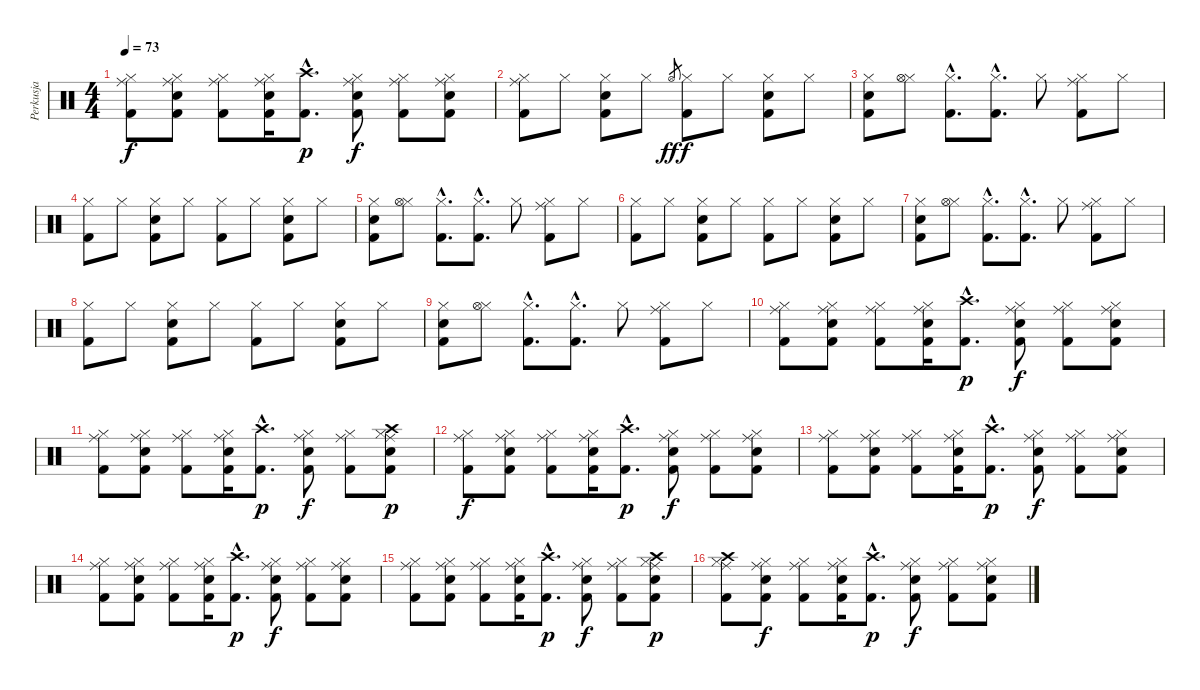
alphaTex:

\track ("Perkusja" "Perkusja") {instrument percussion}
\staff {score}
\articulation defaults
\ts (4 4)
\tempo 73
\clef neutral
\ks c
("Hi-Hat (closed)" "Kick (hit) 2" "Ride (middle)").8{dy f} ("Hi-Hat (closed)" "Snare (hit) 2" "Kick (hit) 2" "Ride (middle)").8 ("Hi-Hat (closed)" "Kick (hit) 2" "Ride (middle)").8 ("Hi-Hat (closed)" "Snare (hit) 2" "Kick (hit) 2" "Ride (middle)").16 ("Crash high (hit)"{hac} "Kick (hit) 2"{hac}).8{d dy p} ("Hi-Hat (closed)" "Snare (hit) 2" "Kick (hit) 2" "Ride (middle)").8{dy f} ("Hi-Hat (closed)" "Kick (hit) 2" "Ride (middle)").8 ("Hi-Hat (closed)" "Snare (hit) 2" "Kick (hit) 2" "Ride (middle)").8 |
("Hi-Hat (closed)" "Kick (hit) 2" "Ride (middle)").8 "Hi-Hat (closed)".8 ("Hi-Hat (closed)" "Snare (hit) 2" "Kick (hit) 2").8 "Hi-Hat (closed)".8 "Hi-Hat (open)".8{gr dy ff} ("Hi-Hat (closed)" "Kick (hit) 2").8{dy f} "Hi-Hat (closed)".8 ("Hi-Hat (closed)" "Snare (hit) 2" "Kick (hit) 2").8 "Hi-Hat (closed)".8 |
("Hi-Hat (closed)" "Snare (hit) 2" "Kick (hit) 2").8 ("Hi-Hat (closed)" "Hi-Hat (open)").8 ("Hi-Hat (closed)"{hac} "Kick (hit) 2"{hac}).8{d} ("Hi-Hat (closed)"{hac} "Kick (hit) 2"{hac}).8{d} "Hi-Hat (closed)".8 ("Hi-Hat (closed)" "Ride (middle)" "Kick (hit) 2").8 "Hi-Hat (closed)".8 |
("Hi-Hat (closed)" "Kick (hit) 2").8 "Hi-Hat (closed)".8 ("Hi-Hat (closed)" "Snare (hit) 2" "Kick (hit) 2").8 "Hi-Hat (closed)".8 ("Hi-Hat (closed)" "Kick (hit) 2").8 "Hi-Hat (closed)".8 ("Hi-Hat (closed)" "Snare (hit) 2" "Kick (hit) 2").8 "Hi-Hat (closed)".8 |
("Hi-Hat (closed)" "Snare (hit) 2" "Kick (hit) 2").8 ("Hi-Hat (closed)" "Hi-Hat (open)").8 ("Hi-Hat (closed)"{hac} "Kick (hit) 2"{hac}).8{d} ("Hi-Hat (closed)"{hac} "Kick (hit) 2"{hac}).8{d} "Hi-Hat (closed)".8 ("Hi-Hat (closed)" "Ride (middle)" "Kick (hit) 2").8 "Hi-Hat (closed)".8 |
("Hi-Hat (closed)" "Kick (hit) 2").8 "Hi-Hat (closed)".8 ("Hi-Hat (closed)" "Snare (hit) 2" "Kick (hit) 2").8 "Hi-Hat (closed)".8 ("Hi-Hat (closed)" "Kick (hit) 2").8 "Hi-Hat (closed)".8 ("Hi-Hat (closed)" "Snare (hit) 2" "Kick (hit) 2").8 "Hi-Hat (closed)".8 |
("Hi-Hat (closed)" "Snare (hit) 2" "Kick (hit) 2").8 ("Hi-Hat (closed)" "Hi-Hat (open)").8 ("Hi-Hat (closed)"{hac} "Kick (hit) 2"{hac}).8{d} ("Hi-Hat (closed)"{hac} "Kick (hit) 2"{hac}).8{d} "Hi-Hat (closed)".8 ("Hi-Hat (closed)" "Ride (middle)" "Kick (hit) 2").8 "Hi-Hat (closed)".8 |
("Hi-Hat (closed)" "Kick (hit) 2").8 "Hi-Hat (closed)".8 ("Hi-Hat (closed)" "Snare (hit) 2" "Kick (hit) 2").8 "Hi-Hat (closed)".8 ("Hi-Hat (closed)" "Kick (hit) 2").8 "Hi-Hat (closed)".8 ("Hi-Hat (closed)" "Snare (hit) 2" "Kick (hit) 2").8 "Hi-Hat (closed)".8 |
("Hi-Hat (closed)" "Snare (hit) 2" "Kick (hit) 2").8 ("Hi-Hat (closed)" "Hi-Hat (open)").8 ("Hi-Hat (closed)"{hac} "Kick (hit) 2"{hac}).8{d} ("Hi-Hat (closed)"{hac} "Kick (hit) 2"{hac}).8{d} "Hi-Hat (closed)".8 ("Hi-Hat (closed)" "Ride (middle)" "Kick (hit) 2").8 "Hi-Hat (closed)".8 |
("Hi-Hat (closed)" "Kick (hit) 2" "Ride (middle)").8 ("Hi-Hat (closed)" "Snare (hit) 2" "Kick (hit) 2" "Ride (middle)").8 ("Hi-Hat (closed)" "Kick (hit) 2" "Ride (middle)").8 ("Hi-Hat (closed)" "Snare (hit) 2" "Kick (hit) 2" "Ride (middle)").16 ("Crash high (hit)"{hac} "Kick (hit) 2"{hac}).8{d dy p} ("Hi-Hat (closed)" "Snare (hit) 2" "Kick (hit) 2" "Ride (middle)").8{dy f} ("Hi-Hat (closed)" "Kick (hit) 2" "Ride (middle)").8 ("Hi-Hat (closed)" "Snare (hit) 2" "Kick (hit) 2" "Ride (middle)").8 |
("Hi-Hat (closed)" "Kick (hit) 2" "Ride (middle)").8 ("Hi-Hat (closed)" "Snare (hit) 2" "Kick (hit) 2" "Ride (middle)").8 ("Hi-Hat (closed)" "Kick (hit) 2" "Ride (middle)").8 ("Hi-Hat (closed)" "Snare (hit) 2" "Kick (hit) 2" "Ride (middle)").16 ("Crash high (hit)"{hac} "Kick (hit) 2"{hac}).8{d dy p} ("Hi-Hat (closed)" "Snare (hit) 2" "Kick (hit) 2" "Ride (middle)").8{dy f} ("Hi-Hat (closed)" "Kick (hit) 2" "Ride (middle)").8 ("Hi-Hat (closed)" "Crash high (hit)" "Snare (hit) 2" "Kick (hit) 2" "Ride (middle)").8{dy p} |
("Hi-Hat (closed)" "Kick (hit) 2" "Ride (middle)").8{dy f} ("Hi-Hat (closed)" "Snare (hit) 2" "Kick (hit) 2" "Ride (middle)").8 ("Hi-Hat (closed)" "Kick (hit) 2" "Ride (middle)").8 ("Hi-Hat (closed)" "Snare (hit) 2" "Kick (hit) 2" "Ride (middle)").16 ("Crash high (hit)"{hac} "Kick (hit) 2"{hac}).8{d dy p} ("Hi-Hat (closed)" "Snare (hit) 2" "Kick (hit) 2" "Ride (middle)").8{dy f} ("Hi-Hat (closed)" "Kick (hit) 2" "Ride (middle)").8 ("Hi-Hat (closed)" "Snare (hit) 2" "Kick (hit) 2" "Ride (middle)").8 |
("Hi-Hat (closed)" "Kick (hit) 2" "Ride (middle)").8 ("Hi-Hat (closed)" "Snare (hit) 2" "Kick (hit) 2" "Ride (middle)").8 ("Hi-Hat (closed)" "Kick (hit) 2" "Ride (middle)").8 ("Hi-Hat (closed)" "Snare (hit) 2" "Kick (hit) 2" "Ride (middle)").16 ("Crash high (hit)"{hac} "Kick (hit) 2"{hac}).8{d dy p} ("Hi-Hat (closed)" "Snare (hit) 2" "Kick (hit) 2" "Ride (middle)").8{dy f} ("Hi-Hat (closed)" "Kick (hit) 2" "Ride (middle)").8 ("Hi-Hat (closed)" "Snare (hit) 2" "Kick (hit) 2" "Ride (middle)").8 |
("Hi-Hat (closed)" "Kick (hit) 2" "Ride (middle)").8 ("Hi-Hat (closed)" "Snare (hit) 2" "Kick (hit) 2" "Ride (middle)").8 ("Hi-Hat (closed)" "Kick (hit) 2" "Ride (middle)").8 ("Hi-Hat (closed)" "Snare (hit) 2" "Kick (hit) 2" "Ride (middle)").16 ("Crash high (hit)"{hac} "Kick (hit) 2"{hac}).8{d dy p} ("Hi-Hat (closed)" "Snare (hit) 2" "Kick (hit) 2" "Ride (middle)").8{dy f} ("Hi-Hat (closed)" "Kick (hit) 2" "Ride (middle)").8 ("Hi-Hat (closed)" "Snare (hit) 2" "Kick (hit) 2" "Ride (middle)").8 |
("Hi-Hat (closed)" "Kick (hit) 2" "Ride (middle)").8 ("Hi-Hat (closed)" "Snare (hit) 2" "Kick (hit) 2" "Ride (middle)").8 ("Hi-Hat (closed)" "Kick (hit) 2" "Ride (middle)").8 ("Hi-Hat (closed)" "Snare (hit) 2" "Kick (hit) 2" "Ride (middle)").16 ("Crash high (hit)"{hac} "Kick (hit) 2"{hac}).8{d dy p} ("Hi-Hat (closed)" "Snare (hit) 2" "Kick (hit) 2" "Ride (middle)").8{dy f} ("Hi-Hat (closed)" "Kick (hit) 2" "Ride (middle)").8 ("Hi-Hat (closed)" "Crash high (hit)" "Snare (hit) 2" "Kick (hit) 2" "Ride (middle)").8{dy p} |
("Hi-Hat (closed)" "Crash high (hit)" "Kick (hit) 2" "Ride (middle)").8 ("Hi-Hat (closed)" "Snare (hit) 2" "Kick (hit) 2" "Ride (middle)").8{dy f} ("Hi-Hat (closed)" "Kick (hit) 2" "Ride (middle)").8 ("Hi-Hat (closed)" "Snare (hit) 2" "Kick (hit) 2" "Ride (middle)").16 ("Crash high (hit)"{hac} "Kick (hit) 2"{hac}).8{d dy p} ("Hi-Hat (closed)" "Snare (hit) 2" "Kick (hit) 2" "Ride (middle)").8{dy f} ("Hi-Hat (closed)" "Kick (hit) 2" "Ride (middle)").8 ("Hi-Hat (closed)" "Snare (hit) 2" "Kick (hit) 2" "Ride (middle)").8
